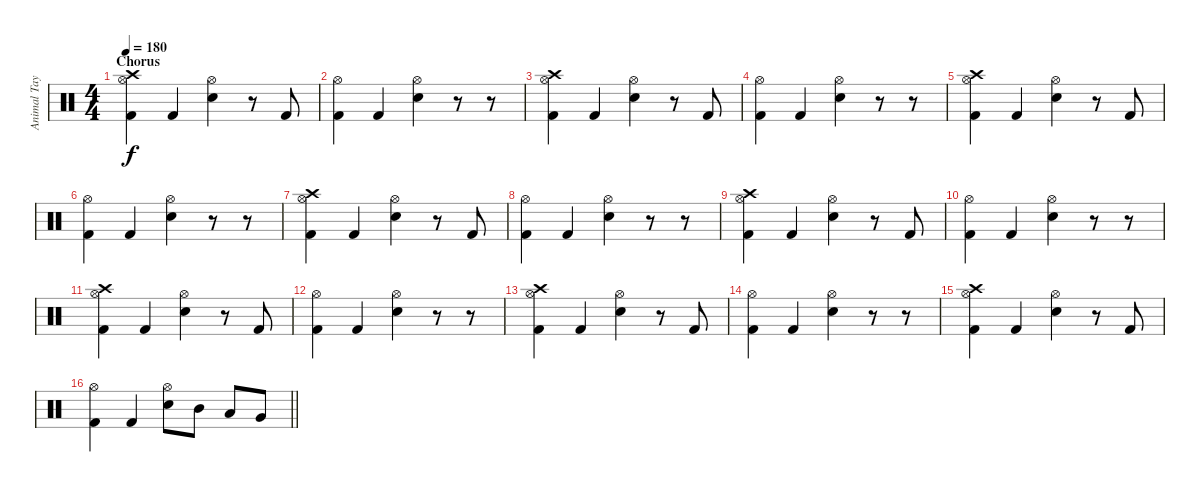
\track ("Animal Taylor" "Animal Tay") {instrument percussion}
\staff {score}
\articulation defaults
\ts (4 4)
\section ("" "Chorus")
\tempo 180
\clef neutral
\ks c
("Hi-Hat (open)" "Crash high (hit)" "Kick (hit) 2").4{dy f} "Kick (hit) 2".4 ("Hi-Hat (open)" "Snare (hit) 2").4 r.8 "Kick (hit) 2".8 |
("Hi-Hat (open)" "Kick (hit) 2").4 "Kick (hit) 2".4 ("Hi-Hat (open)" "Snare (hit) 2").4 r.8 r.8 |
("Hi-Hat (open)" "Crash high (hit)" "Kick (hit) 2").4 "Kick (hit) 2".4 ("Hi-Hat (open)" "Snare (hit) 2").4 r.8 "Kick (hit) 2".8 |
("Hi-Hat (open)" "Kick (hit) 2").4 "Kick (hit) 2".4 ("Hi-Hat (open)" "Snare (hit) 2").4 r.8 r.8 |
("Hi-Hat (open)" "Crash high (hit)" "Kick (hit) 2").4 "Kick (hit) 2".4 ("Hi-Hat (open)" "Snare (hit) 2").4 r.8 "Kick (hit) 2".8 |
("Hi-Hat (open)" "Kick (hit) 2").4 "Kick (hit) 2".4 ("Hi-Hat (open)" "Snare (hit) 2").4 r.8 r.8 |
("Hi-Hat (open)" "Crash high (hit)" "Kick (hit) 2").4 "Kick (hit) 2".4 ("Hi-Hat (open)" "Snare (hit) 2").4 r.8 "Kick (hit) 2".8 |
("Hi-Hat (open)" "Kick (hit) 2").4 "Kick (hit) 2".4 ("Hi-Hat (open)" "Snare (hit) 2").4 r.8 r.8 |
("Hi-Hat (open)" "Crash high (hit)" "Kick (hit) 2").4 "Kick (hit) 2".4 ("Hi-Hat (open)" "Snare (hit) 2").4 r.8 "Kick (hit) 2".8 |
("Hi-Hat (open)" "Kick (hit) 2").4 "Kick (hit) 2".4 ("Hi-Hat (open)" "Snare (hit) 2").4 r.8 r.8 |
("Hi-Hat (open)" "Crash high (hit)" "Kick (hit) 2").4 "Kick (hit) 2".4 ("Hi-Hat (open)" "Snare (hit) 2").4 r.8 "Kick (hit) 2".8 |
("Hi-Hat (open)" "Kick (hit) 2").4 "Kick (hit) 2".4 ("Hi-Hat (open)" "Snare (hit) 2").4 r.8 r.8 |
("Hi-Hat (open)" "Crash high (hit)" "Kick (hit) 2").4 "Kick (hit) 2".4 ("Hi-Hat (open)" "Snare (hit) 2").4 r.8 "Kick (hit) 2".8 |
("Hi-Hat (open)" "Kick (hit) 2").4 "Kick (hit) 2".4 ("Hi-Hat (open)" "Snare (hit) 2").4 r.8 r.8 |
("Hi-Hat (open)" "Crash high (hit)" "Kick (hit) 2").4 "Kick (hit) 2".4 ("Hi-Hat (open)" "Snare (hit) 2").4 r.8 "Kick (hit) 2".8 |
\barLineRight lightlight
("Hi-Hat (open)" "Kick (hit) 2").4 "Kick (hit) 2".4 ("Hi-Hat (open)" "Snare (hit) 2").8 "Mid Tom (hit)".8 "Low Tom (hit)".8 "Very Low Tom (hit)".8
